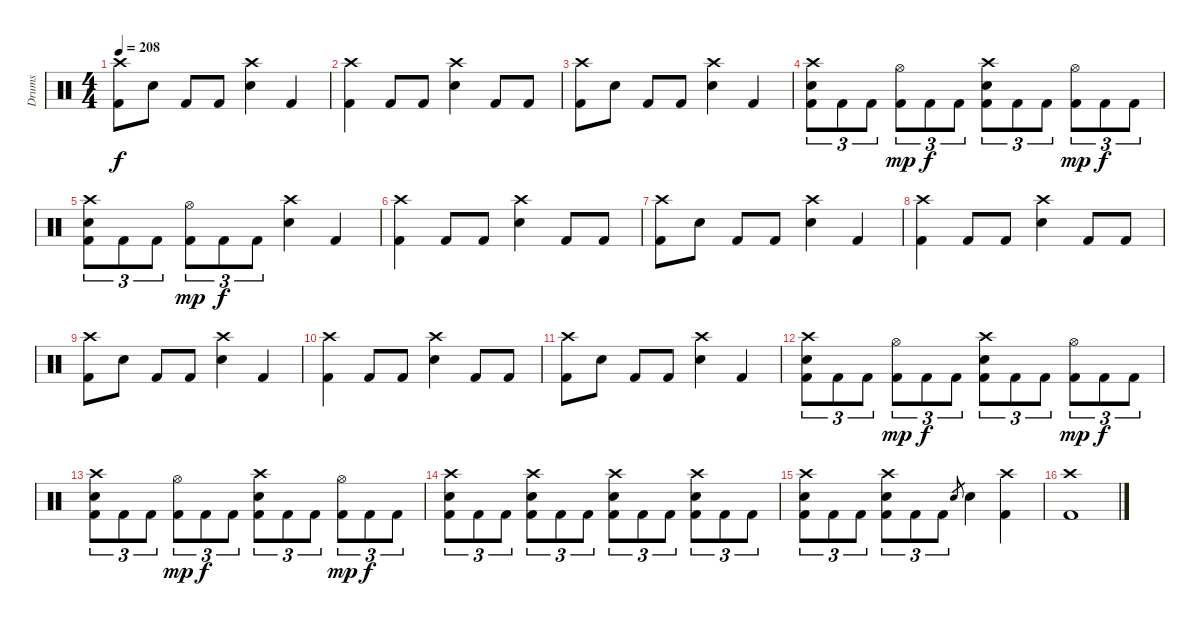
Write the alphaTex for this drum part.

\track ("Drums" "Drums") {instrument percussion}
\staff {score}
\articulation defaults
\ts (4 4)
\tempo 208
\clef neutral
\ks c
("Crash high (hit)" "Kick (hit) 2").8{dy f} "Electric Snare (hit)".8 "Kick (hit) 2".8 "Kick (hit) 2".8 ("Crash high (hit)" "Electric Snare (hit)").4 "Kick (hit) 2".4 |
("Crash high (hit)" "Kick (hit) 2").4 "Kick (hit) 2".8 "Kick (hit) 2".8 ("Crash high (hit)" "Electric Snare (hit)").4 "Kick (hit) 2".8 "Kick (hit) 2".8 |
("Crash high (hit)" "Kick (hit) 2").8 "Electric Snare (hit)".8 "Kick (hit) 2".8 "Kick (hit) 2".8 ("Crash high (hit)" "Electric Snare (hit)").4 "Kick (hit) 2".4 |
("Crash high (hit)" "Electric Snare (hit)" "Kick (hit) 2").8{tu (3 2)} "Kick (hit) 2".8{tu (3 2)} "Kick (hit) 2".8{tu (3 2)} ("Hi-Hat (open)" "Kick (hit) 2").8{tu (3 2) dy mp} "Kick (hit) 2".8{tu (3 2) dy f} "Kick (hit) 2".8{tu (3 2)} ("Crash high (hit)" "Electric Snare (hit)" "Kick (hit) 2").8{tu (3 2)} "Kick (hit) 2".8{tu (3 2)} "Kick (hit) 2".8{tu (3 2)} ("Hi-Hat (open)" "Kick (hit) 2").8{tu (3 2) dy mp} "Kick (hit) 2".8{tu (3 2) dy f} "Kick (hit) 2".8{tu (3 2)} |
("Crash high (hit)" "Electric Snare (hit)" "Kick (hit) 2").8{tu (3 2)} "Kick (hit) 2".8{tu (3 2)} "Kick (hit) 2".8{tu (3 2)} ("Hi-Hat (open)" "Kick (hit) 2").8{tu (3 2) dy mp} "Kick (hit) 2".8{tu (3 2) dy f} "Kick (hit) 2".8{tu (3 2)} ("Crash high (hit)" "Electric Snare (hit)").4 "Kick (hit) 2".4 |
("Crash high (hit)" "Kick (hit) 2").4 "Kick (hit) 2".8 "Kick (hit) 2".8 ("Crash high (hit)" "Electric Snare (hit)").4 "Kick (hit) 2".8 "Kick (hit) 2".8 |
("Crash high (hit)" "Kick (hit) 2").8 "Electric Snare (hit)".8 "Kick (hit) 2".8 "Kick (hit) 2".8 ("Crash high (hit)" "Electric Snare (hit)").4 "Kick (hit) 2".4 |
("Crash high (hit)" "Kick (hit) 2").4 "Kick (hit) 2".8 "Kick (hit) 2".8 ("Crash high (hit)" "Electric Snare (hit)").4 "Kick (hit) 2".8 "Kick (hit) 2".8 |
("Crash high (hit)" "Kick (hit) 2").8 "Electric Snare (hit)".8 "Kick (hit) 2".8 "Kick (hit) 2".8 ("Crash high (hit)" "Electric Snare (hit)").4 "Kick (hit) 2".4 |
("Crash high (hit)" "Kick (hit) 2").4 "Kick (hit) 2".8 "Kick (hit) 2".8 ("Crash high (hit)" "Electric Snare (hit)").4 "Kick (hit) 2".8 "Kick (hit) 2".8 |
("Crash high (hit)" "Kick (hit) 2").8 "Electric Snare (hit)".8 "Kick (hit) 2".8 "Kick (hit) 2".8 ("Crash high (hit)" "Electric Snare (hit)").4 "Kick (hit) 2".4 |
("Crash high (hit)" "Electric Snare (hit)" "Kick (hit) 2").8{tu (3 2)} "Kick (hit) 2".8{tu (3 2)} "Kick (hit) 2".8{tu (3 2)} ("Hi-Hat (open)" "Kick (hit) 2").8{tu (3 2) dy mp} "Kick (hit) 2".8{tu (3 2) dy f} "Kick (hit) 2".8{tu (3 2)} ("Crash high (hit)" "Electric Snare (hit)" "Kick (hit) 2").8{tu (3 2)} "Kick (hit) 2".8{tu (3 2)} "Kick (hit) 2".8{tu (3 2)} ("Hi-Hat (open)" "Kick (hit) 2").8{tu (3 2) dy mp} "Kick (hit) 2".8{tu (3 2) dy f} "Kick (hit) 2".8{tu (3 2)} |
("Crash high (hit)" "Electric Snare (hit)" "Kick (hit) 2").8{tu (3 2)} "Kick (hit) 2".8{tu (3 2)} "Kick (hit) 2".8{tu (3 2)} ("Hi-Hat (open)" "Kick (hit) 2").8{tu (3 2) dy mp} "Kick (hit) 2".8{tu (3 2) dy f} "Kick (hit) 2".8{tu (3 2)} ("Crash high (hit)" "Electric Snare (hit)" "Kick (hit) 2").8{tu (3 2)} "Kick (hit) 2".8{tu (3 2)} "Kick (hit) 2".8{tu (3 2)} ("Hi-Hat (open)" "Kick (hit) 2").8{tu (3 2) dy mp} "Kick (hit) 2".8{tu (3 2) dy f} "Kick (hit) 2".8{tu (3 2)} |
("Crash high (hit)" "Electric Snare (hit)" "Kick (hit) 2").8{tu (3 2)} "Kick (hit) 2".8{tu (3 2)} "Kick (hit) 2".8{tu (3 2)} ("Crash high (hit)" "Electric Snare (hit)" "Kick (hit) 2").8{tu (3 2)} "Kick (hit) 2".8{tu (3 2)} "Kick (hit) 2".8{tu (3 2)} ("Crash high (hit)" "Electric Snare (hit)" "Kick (hit) 2").8{tu (3 2)} "Kick (hit) 2".8{tu (3 2)} "Kick (hit) 2".8{tu (3 2)} ("Crash high (hit)" "Electric Snare (hit)" "Kick (hit) 2").8{tu (3 2)} "Kick (hit) 2".8{tu (3 2)} "Kick (hit) 2".8{tu (3 2)} |
("Crash high (hit)" "Electric Snare (hit)" "Kick (hit) 2").8{tu (3 2)} "Kick (hit) 2".8{tu (3 2)} "Kick (hit) 2".8{tu (3 2)} ("Crash high (hit)" "Electric Snare (hit)" "Kick (hit) 2").8{tu (3 2)} "Kick (hit) 2".8{tu (3 2)} "Kick (hit) 2".8{tu (3 2)} "Electric Snare (hit)".8{gr} "Electric Snare (hit)".4 ("Crash high (hit)" "Kick (hit) 2").4 |
("Crash high (hit)" "Kick (hit) 2").1
